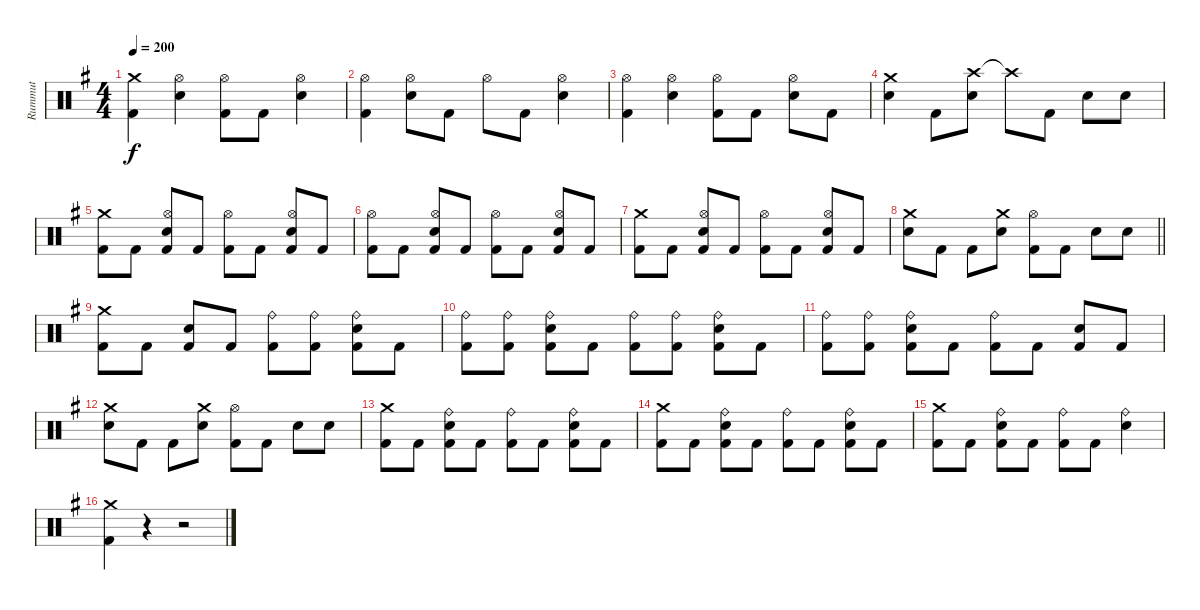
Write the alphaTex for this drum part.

\track ("Rummut" "Rummut") {instrument percussion}
\staff {score}
\articulation defaults
\ts (4 4)
\tempo 200
\clef neutral
\ks g
("Crash medium (hit)" "Kick (hit) 2").4{dy f} ("Hi-Hat (open)" "Snare (hit) 2").4 ("Hi-Hat (open)" "Kick (hit) 2").8 "Kick (hit) 2".8 ("Hi-Hat (open)" "Snare (hit) 2").4 |
("Hi-Hat (open)" "Kick (hit) 2").4 ("Hi-Hat (open)" "Snare (hit) 2").8 "Kick (hit) 2".8 "Hi-Hat (open)".8 "Kick (hit) 2".8 ("Hi-Hat (open)" "Snare (hit) 2").4 |
("Hi-Hat (open)" "Kick (hit) 2").4 ("Hi-Hat (open)" "Snare (hit) 2").4 ("Hi-Hat (open)" "Kick (hit) 2").8 "Kick (hit) 2".8 ("Hi-Hat (open)" "Snare (hit) 2").8 "Kick (hit) 2".8 |
("Crash medium (hit)" "Snare (hit) 2").4 "Kick (hit) 2".8 ("Crash high (hit)" "Snare (hit) 2").8 "Crash high (hit)"{t}.8 "Kick (hit) 2".8 "Snare (hit) 2".8 "Snare (hit) 2".8 |
("Crash medium (hit)" "Kick (hit) 2").8 "Kick (hit) 2".8 ("Hi-Hat (open)" "Snare (hit) 2" "Kick (hit) 2").8 "Kick (hit) 2".8 ("Hi-Hat (open)" "Kick (hit) 2").8 "Kick (hit) 2".8 ("Hi-Hat (open)" "Snare (hit) 2" "Kick (hit) 2").8 "Kick (hit) 2".8 |
("Hi-Hat (open)" "Kick (hit) 2").8 "Kick (hit) 2".8 ("Hi-Hat (open)" "Snare (hit) 2" "Kick (hit) 2").8 "Kick (hit) 2".8 ("Hi-Hat (open)" "Kick (hit) 2").8 "Kick (hit) 2".8 ("Hi-Hat (open)" "Snare (hit) 2" "Kick (hit) 2").8 "Kick (hit) 2".8 |
("Crash medium (hit)" "Kick (hit) 2").8 "Kick (hit) 2".8 ("Hi-Hat (open)" "Snare (hit) 2" "Kick (hit) 2").8 "Kick (hit) 2".8 ("Hi-Hat (open)" "Kick (hit) 2").8 "Kick (hit) 2".8 ("Hi-Hat (open)" "Snare (hit) 2" "Kick (hit) 2").8 "Kick (hit) 2".8 |
\barLineRight lightlight
("Crash medium (hit)" "Snare (hit) 2").8 "Kick (hit) 2".8 "Kick (hit) 2".8 ("Crash medium (hit)" "Snare (hit) 2").8 ("Hi-Hat (open)" "Kick (hit) 2").8 "Kick (hit) 2".8 "Snare (hit) 2".8 "Snare (hit) 2".8 |
("Crash medium (hit)" "Kick (hit) 2").8 "Kick (hit) 2".8 ("Snare (hit) 2" "Kick (hit) 2").8 "Kick (hit) 2".8 ("Ride (bell)" "Kick (hit) 2").8 ("Ride (bell)" "Kick (hit) 2").8 ("Ride (bell)" "Snare (hit) 2" "Kick (hit) 2").8 "Kick (hit) 2".8 |
("Ride (bell)" "Kick (hit) 2").8 ("Ride (bell)" "Kick (hit) 2").8 ("Ride (bell)" "Snare (hit) 2" "Kick (hit) 2").8 "Kick (hit) 2".8 ("Ride (bell)" "Kick (hit) 2").8 ("Ride (bell)" "Kick (hit) 2").8 ("Ride (bell)" "Snare (hit) 2" "Kick (hit) 2").8 "Kick (hit) 2".8 |
("Ride (bell)" "Kick (hit) 2").8 ("Ride (bell)" "Kick (hit) 2").8 ("Ride (bell)" "Snare (hit) 2" "Kick (hit) 2").8 "Kick (hit) 2".8 ("Ride (bell)" "Kick (hit) 2").8 "Kick (hit) 2".8 ("Snare (hit) 2" "Kick (hit) 2").8 "Kick (hit) 2".8 |
("Crash medium (hit)" "Snare (hit) 2").8 "Kick (hit) 2".8 "Kick (hit) 2".8 ("Crash medium (hit)" "Snare (hit) 2").8 ("Hi-Hat (open)" "Kick (hit) 2").8 "Kick (hit) 2".8 "Snare (hit) 2".8 "Snare (hit) 2".8 |
("Crash medium (hit)" "Kick (hit) 2").8 "Kick (hit) 2".8 ("Ride (bell)" "Snare (hit) 2" "Kick (hit) 2").8 "Kick (hit) 2".8 ("Ride (bell)" "Kick (hit) 2").8 "Kick (hit) 2".8 ("Ride (bell)" "Snare (hit) 2" "Kick (hit) 2").8 "Kick (hit) 2".8 |
("Crash medium (hit)" "Kick (hit) 2").8 "Kick (hit) 2".8 ("Ride (bell)" "Snare (hit) 2" "Kick (hit) 2").8 "Kick (hit) 2".8 ("Ride (bell)" "Kick (hit) 2").8 "Kick (hit) 2".8 ("Ride (bell)" "Snare (hit) 2" "Kick (hit) 2").8 "Kick (hit) 2".8 |
("Crash medium (hit)" "Kick (hit) 2").8 "Kick (hit) 2".8 ("Ride (bell)" "Snare (hit) 2" "Kick (hit) 2").8 "Kick (hit) 2".8 ("Ride (bell)" "Kick (hit) 2").8 "Kick (hit) 2".8 ("Ride (bell)" "Snare (hit) 2").4 |
("Crash medium (hit)" "Kick (hit) 2").4 r.4 r.2
